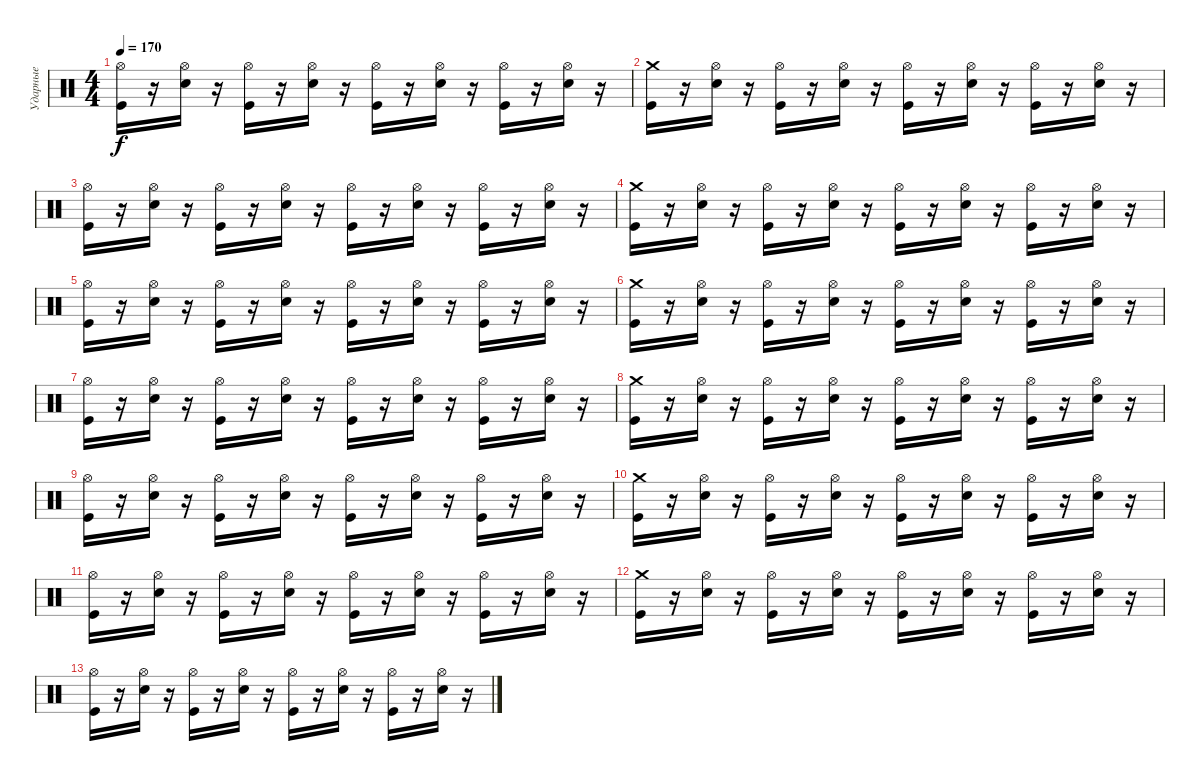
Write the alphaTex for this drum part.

\track ("Ударные" "Ударные") {instrument percussion}
\staff {score}
\articulation defaults
\ts (4 4)
\tempo 170
\clef neutral
\ks c
("Hi-Hat (open)" "Kick (hit)").16{dy f} r.16 ("Hi-Hat (open)" "Electric Snare (hit)").16 r.16 ("Hi-Hat (open)" "Kick (hit)").16 r.16 ("Hi-Hat (open)" "Electric Snare (hit)").16 r.16 ("Hi-Hat (open)" "Kick (hit)").16 r.16 ("Hi-Hat (open)" "Electric Snare (hit)").16 r.16 ("Hi-Hat (open)" "Kick (hit)").16 r.16 ("Hi-Hat (open)" "Electric Snare (hit)").16 r.16 |
("Crash medium (hit)" "Kick (hit)").16 r.16 ("Hi-Hat (open)" "Electric Snare (hit)").16 r.16 ("Hi-Hat (open)" "Kick (hit)").16 r.16 ("Hi-Hat (open)" "Electric Snare (hit)").16 r.16 ("Hi-Hat (open)" "Kick (hit)").16 r.16 ("Hi-Hat (open)" "Electric Snare (hit)").16 r.16 ("Hi-Hat (open)" "Kick (hit)").16 r.16 ("Hi-Hat (open)" "Electric Snare (hit)").16 r.16 |
("Hi-Hat (open)" "Kick (hit)").16 r.16 ("Hi-Hat (open)" "Electric Snare (hit)").16 r.16 ("Hi-Hat (open)" "Kick (hit)").16 r.16 ("Hi-Hat (open)" "Electric Snare (hit)").16 r.16 ("Hi-Hat (open)" "Kick (hit)").16 r.16 ("Hi-Hat (open)" "Electric Snare (hit)").16 r.16 ("Hi-Hat (open)" "Kick (hit)").16 r.16 ("Hi-Hat (open)" "Electric Snare (hit)").16 r.16 |
("Crash medium (hit)" "Kick (hit)").16 r.16 ("Hi-Hat (open)" "Electric Snare (hit)").16 r.16 ("Hi-Hat (open)" "Kick (hit)").16 r.16 ("Hi-Hat (open)" "Electric Snare (hit)").16 r.16 ("Hi-Hat (open)" "Kick (hit)").16 r.16 ("Hi-Hat (open)" "Electric Snare (hit)").16 r.16 ("Hi-Hat (open)" "Kick (hit)").16 r.16 ("Hi-Hat (open)" "Electric Snare (hit)").16 r.16 |
("Hi-Hat (open)" "Kick (hit)").16 r.16 ("Hi-Hat (open)" "Electric Snare (hit)").16 r.16 ("Hi-Hat (open)" "Kick (hit)").16 r.16 ("Hi-Hat (open)" "Electric Snare (hit)").16 r.16 ("Hi-Hat (open)" "Kick (hit)").16 r.16 ("Hi-Hat (open)" "Electric Snare (hit)").16 r.16 ("Hi-Hat (open)" "Kick (hit)").16 r.16 ("Hi-Hat (open)" "Electric Snare (hit)").16 r.16 |
("Crash medium (hit)" "Kick (hit)").16 r.16 ("Hi-Hat (open)" "Electric Snare (hit)").16 r.16 ("Hi-Hat (open)" "Kick (hit)").16 r.16 ("Hi-Hat (open)" "Electric Snare (hit)").16 r.16 ("Hi-Hat (open)" "Kick (hit)").16 r.16 ("Hi-Hat (open)" "Electric Snare (hit)").16 r.16 ("Hi-Hat (open)" "Kick (hit)").16 r.16 ("Hi-Hat (open)" "Electric Snare (hit)").16 r.16 |
("Hi-Hat (open)" "Kick (hit)").16 r.16 ("Hi-Hat (open)" "Electric Snare (hit)").16 r.16 ("Hi-Hat (open)" "Kick (hit)").16 r.16 ("Hi-Hat (open)" "Electric Snare (hit)").16 r.16 ("Hi-Hat (open)" "Kick (hit)").16 r.16 ("Hi-Hat (open)" "Electric Snare (hit)").16 r.16 ("Hi-Hat (open)" "Kick (hit)").16 r.16 ("Hi-Hat (open)" "Electric Snare (hit)").16 r.16 |
("Crash medium (hit)" "Kick (hit)").16 r.16 ("Hi-Hat (open)" "Electric Snare (hit)").16 r.16 ("Hi-Hat (open)" "Kick (hit)").16 r.16 ("Hi-Hat (open)" "Electric Snare (hit)").16 r.16 ("Hi-Hat (open)" "Kick (hit)").16 r.16 ("Hi-Hat (open)" "Electric Snare (hit)").16 r.16 ("Hi-Hat (open)" "Kick (hit)").16 r.16 ("Hi-Hat (open)" "Electric Snare (hit)").16 r.16 |
("Hi-Hat (open)" "Kick (hit)").16 r.16 ("Hi-Hat (open)" "Electric Snare (hit)").16 r.16 ("Hi-Hat (open)" "Kick (hit)").16 r.16 ("Hi-Hat (open)" "Electric Snare (hit)").16 r.16 ("Hi-Hat (open)" "Kick (hit)").16 r.16 ("Hi-Hat (open)" "Electric Snare (hit)").16 r.16 ("Hi-Hat (open)" "Kick (hit)").16 r.16 ("Hi-Hat (open)" "Electric Snare (hit)").16 r.16 |
("Crash medium (hit)" "Kick (hit)").16 r.16 ("Hi-Hat (open)" "Electric Snare (hit)").16 r.16 ("Hi-Hat (open)" "Kick (hit)").16 r.16 ("Hi-Hat (open)" "Electric Snare (hit)").16 r.16 ("Hi-Hat (open)" "Kick (hit)").16 r.16 ("Hi-Hat (open)" "Electric Snare (hit)").16 r.16 ("Hi-Hat (open)" "Kick (hit)").16 r.16 ("Hi-Hat (open)" "Electric Snare (hit)").16 r.16 |
("Hi-Hat (open)" "Kick (hit)").16 r.16 ("Hi-Hat (open)" "Electric Snare (hit)").16 r.16 ("Hi-Hat (open)" "Kick (hit)").16 r.16 ("Hi-Hat (open)" "Electric Snare (hit)").16 r.16 ("Hi-Hat (open)" "Kick (hit)").16 r.16 ("Hi-Hat (open)" "Electric Snare (hit)").16 r.16 ("Hi-Hat (open)" "Kick (hit)").16 r.16 ("Hi-Hat (open)" "Electric Snare (hit)").16 r.16 |
("Crash medium (hit)" "Kick (hit)").16 r.16 ("Hi-Hat (open)" "Electric Snare (hit)").16 r.16 ("Hi-Hat (open)" "Kick (hit)").16 r.16 ("Hi-Hat (open)" "Electric Snare (hit)").16 r.16 ("Hi-Hat (open)" "Kick (hit)").16 r.16 ("Hi-Hat (open)" "Electric Snare (hit)").16 r.16 ("Hi-Hat (open)" "Kick (hit)").16 r.16 ("Hi-Hat (open)" "Electric Snare (hit)").16 r.16 |
("Hi-Hat (open)" "Kick (hit)").16 r.16 ("Hi-Hat (open)" "Electric Snare (hit)").16 r.16 ("Hi-Hat (open)" "Kick (hit)").16 r.16 ("Hi-Hat (open)" "Electric Snare (hit)").16 r.16 ("Hi-Hat (open)" "Kick (hit)").16 r.16 ("Hi-Hat (open)" "Electric Snare (hit)").16 r.16 ("Hi-Hat (open)" "Kick (hit)").16 r.16 ("Hi-Hat (open)" "Electric Snare (hit)").16 r.16
